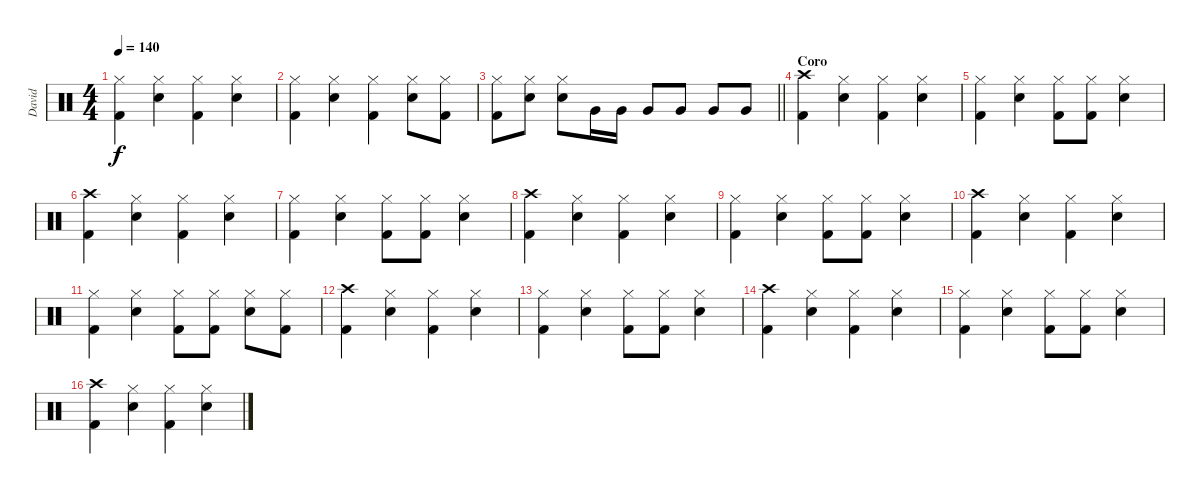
\track ("David" "David") {instrument percussion}
\staff {score}
\articulation defaults
\ts (4 4)
\tempo 140
\clef neutral
\ks c
("Hi-Hat (closed)" "Kick (hit) 2").4{dy f} ("Hi-Hat (closed)" "Snare (hit) 2").4 ("Hi-Hat (closed)" "Kick (hit) 2").4 ("Hi-Hat (closed)" "Snare (hit) 2").4 |
("Hi-Hat (closed)" "Kick (hit) 2").4 ("Hi-Hat (closed)" "Snare (hit) 2").4 ("Hi-Hat (closed)" "Kick (hit) 2").4 ("Hi-Hat (closed)" "Snare (hit) 2").8 ("Hi-Hat (closed)" "Kick (hit) 2").8 |
\barLineRight lightlight
("Hi-Hat (closed)" "Kick (hit) 2").8 ("Hi-Hat (closed)" "Snare (hit) 2").8 ("Hi-Hat (closed)" "Snare (hit) 2").8 "Very Low Tom (hit)".16 "Very Low Tom (hit)".16 "Very Low Tom (hit)".8 "Very Low Tom (hit)".8 "Very Low Tom (hit)".8 "Very Low Tom (hit)".8 |
\section ("" "Coro")
("Crash high (hit)" "Kick (hit) 2").4 ("Hi-Hat (closed)" "Snare (hit) 2").4 ("Hi-Hat (closed)" "Kick (hit) 2").4 ("Hi-Hat (closed)" "Snare (hit) 2").4 |
("Hi-Hat (closed)" "Kick (hit) 2").4 ("Hi-Hat (closed)" "Snare (hit) 2").4 ("Hi-Hat (closed)" "Kick (hit) 2").8 ("Hi-Hat (closed)" "Kick (hit) 2").8 ("Hi-Hat (closed)" "Snare (hit) 2").4 |
("Crash high (hit)" "Kick (hit) 2").4 ("Hi-Hat (closed)" "Snare (hit) 2").4 ("Hi-Hat (closed)" "Kick (hit) 2").4 ("Hi-Hat (closed)" "Snare (hit) 2").4 |
("Hi-Hat (closed)" "Kick (hit) 2").4 ("Hi-Hat (closed)" "Snare (hit) 2").4 ("Hi-Hat (closed)" "Kick (hit) 2").8 ("Hi-Hat (closed)" "Kick (hit) 2").8 ("Hi-Hat (closed)" "Snare (hit) 2").4 |
("Crash high (hit)" "Kick (hit) 2").4 ("Hi-Hat (closed)" "Snare (hit) 2").4 ("Hi-Hat (closed)" "Kick (hit) 2").4 ("Hi-Hat (closed)" "Snare (hit) 2").4 |
("Hi-Hat (closed)" "Kick (hit) 2").4 ("Hi-Hat (closed)" "Snare (hit) 2").4 ("Hi-Hat (closed)" "Kick (hit) 2").8 ("Hi-Hat (closed)" "Kick (hit) 2").8 ("Hi-Hat (closed)" "Snare (hit) 2").4 |
("Crash high (hit)" "Kick (hit) 2").4 ("Hi-Hat (closed)" "Snare (hit) 2").4 ("Hi-Hat (closed)" "Kick (hit) 2").4 ("Hi-Hat (closed)" "Snare (hit) 2").4 |
("Hi-Hat (closed)" "Kick (hit) 2").4 ("Hi-Hat (closed)" "Snare (hit) 2").4 ("Hi-Hat (closed)" "Kick (hit) 2").8 ("Hi-Hat (closed)" "Kick (hit) 2").8 ("Hi-Hat (closed)" "Snare (hit) 2").8 ("Hi-Hat (closed)" "Kick (hit) 2").8 |
("Crash high (hit)" "Kick (hit) 2").4 ("Hi-Hat (closed)" "Snare (hit) 2").4 ("Hi-Hat (closed)" "Kick (hit) 2").4 ("Hi-Hat (closed)" "Snare (hit) 2").4 |
("Hi-Hat (closed)" "Kick (hit) 2").4 ("Hi-Hat (closed)" "Snare (hit) 2").4 ("Hi-Hat (closed)" "Kick (hit) 2").8 ("Hi-Hat (closed)" "Kick (hit) 2").8 ("Hi-Hat (closed)" "Snare (hit) 2").4 |
("Crash high (hit)" "Kick (hit) 2").4 ("Hi-Hat (closed)" "Snare (hit) 2").4 ("Hi-Hat (closed)" "Kick (hit) 2").4 ("Hi-Hat (closed)" "Snare (hit) 2").4 |
("Hi-Hat (closed)" "Kick (hit) 2").4 ("Hi-Hat (closed)" "Snare (hit) 2").4 ("Hi-Hat (closed)" "Kick (hit) 2").8 ("Hi-Hat (closed)" "Kick (hit) 2").8 ("Hi-Hat (closed)" "Snare (hit) 2").4 |
("Crash high (hit)" "Kick (hit) 2").4 ("Hi-Hat (closed)" "Snare (hit) 2").4 ("Hi-Hat (closed)" "Kick (hit) 2").4 ("Hi-Hat (closed)" "Snare (hit) 2").4
